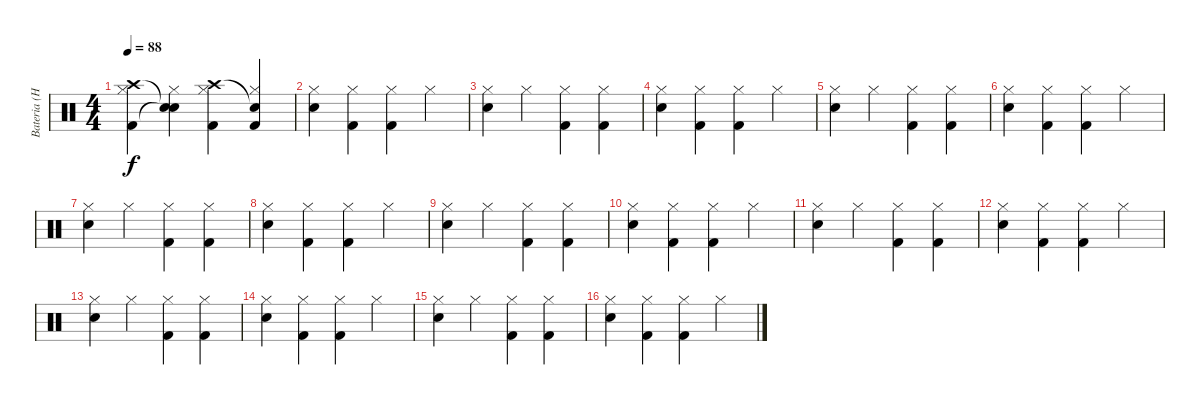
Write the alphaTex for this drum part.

\track ("Bateria (Hugo)" "Bateria (H") {instrument percussion}
\staff {score}
\articulation defaults
\ts (4 4)
\tempo 88
\clef neutral
\ks c
("Kick (hit) 2" "Crash high (hit)" "Hi-Hat (closed)").4{dy f} ("Snare (hit)"{t} "Snare (hit)"{t} "Hi-Hat (closed)").4 ("Kick (hit) 2" "Crash high (hit)" "Hi-Hat (closed)").4 ("Kick (hit) 2" "Snare (hit)"{t} "Hi-Hat (closed)").4 |
("Snare (hit) 2" "Hi-Hat (closed)").4 ("Kick (hit) 2" "Hi-Hat (closed)").4 ("Kick (hit) 2" "Hi-Hat (closed)").4 "Hi-Hat (closed)".4 |
("Snare (hit) 2" "Hi-Hat (closed)").4 "Hi-Hat (closed)".4 ("Kick (hit) 2" "Hi-Hat (closed)").4 ("Kick (hit) 2" "Hi-Hat (closed)").4 |
("Snare (hit) 2" "Hi-Hat (closed)").4 ("Kick (hit) 2" "Hi-Hat (closed)").4 ("Kick (hit) 2" "Hi-Hat (closed)").4 "Hi-Hat (closed)".4 |
("Snare (hit) 2" "Hi-Hat (closed)").4 "Hi-Hat (closed)".4 ("Kick (hit) 2" "Hi-Hat (closed)").4 ("Kick (hit) 2" "Hi-Hat (closed)").4 |
("Snare (hit) 2" "Hi-Hat (closed)").4 ("Kick (hit) 2" "Hi-Hat (closed)").4 ("Kick (hit) 2" "Hi-Hat (closed)").4 "Hi-Hat (closed)".4 |
("Snare (hit) 2" "Hi-Hat (closed)").4 "Hi-Hat (closed)".4 ("Kick (hit) 2" "Hi-Hat (closed)").4 ("Kick (hit) 2" "Hi-Hat (closed)").4 |
("Snare (hit) 2" "Hi-Hat (closed)").4 ("Kick (hit) 2" "Hi-Hat (closed)").4 ("Kick (hit) 2" "Hi-Hat (closed)").4 "Hi-Hat (closed)".4 |
("Snare (hit) 2" "Hi-Hat (closed)").4 "Hi-Hat (closed)".4 ("Kick (hit) 2" "Hi-Hat (closed)").4 ("Kick (hit) 2" "Hi-Hat (closed)").4 |
("Snare (hit) 2" "Hi-Hat (closed)").4 ("Kick (hit) 2" "Hi-Hat (closed)").4 ("Kick (hit) 2" "Hi-Hat (closed)").4 "Hi-Hat (closed)".4 |
("Snare (hit) 2" "Hi-Hat (closed)").4 "Hi-Hat (closed)".4 ("Kick (hit) 2" "Hi-Hat (closed)").4 ("Kick (hit) 2" "Hi-Hat (closed)").4 |
("Snare (hit) 2" "Hi-Hat (closed)").4 ("Kick (hit) 2" "Hi-Hat (closed)").4 ("Kick (hit) 2" "Hi-Hat (closed)").4 "Hi-Hat (closed)".4 |
("Snare (hit) 2" "Hi-Hat (closed)").4 "Hi-Hat (closed)".4 ("Kick (hit) 2" "Hi-Hat (closed)").4 ("Kick (hit) 2" "Hi-Hat (closed)").4 |
("Snare (hit) 2" "Hi-Hat (closed)").4 ("Kick (hit) 2" "Hi-Hat (closed)").4 ("Kick (hit) 2" "Hi-Hat (closed)").4 "Hi-Hat (closed)".4 |
("Snare (hit) 2" "Hi-Hat (closed)").4 "Hi-Hat (closed)".4 ("Kick (hit) 2" "Hi-Hat (closed)").4 ("Kick (hit) 2" "Hi-Hat (closed)").4 |
("Snare (hit) 2" "Hi-Hat (closed)").4 ("Kick (hit) 2" "Hi-Hat (closed)").4 ("Kick (hit) 2" "Hi-Hat (closed)").4 "Hi-Hat (closed)".4
